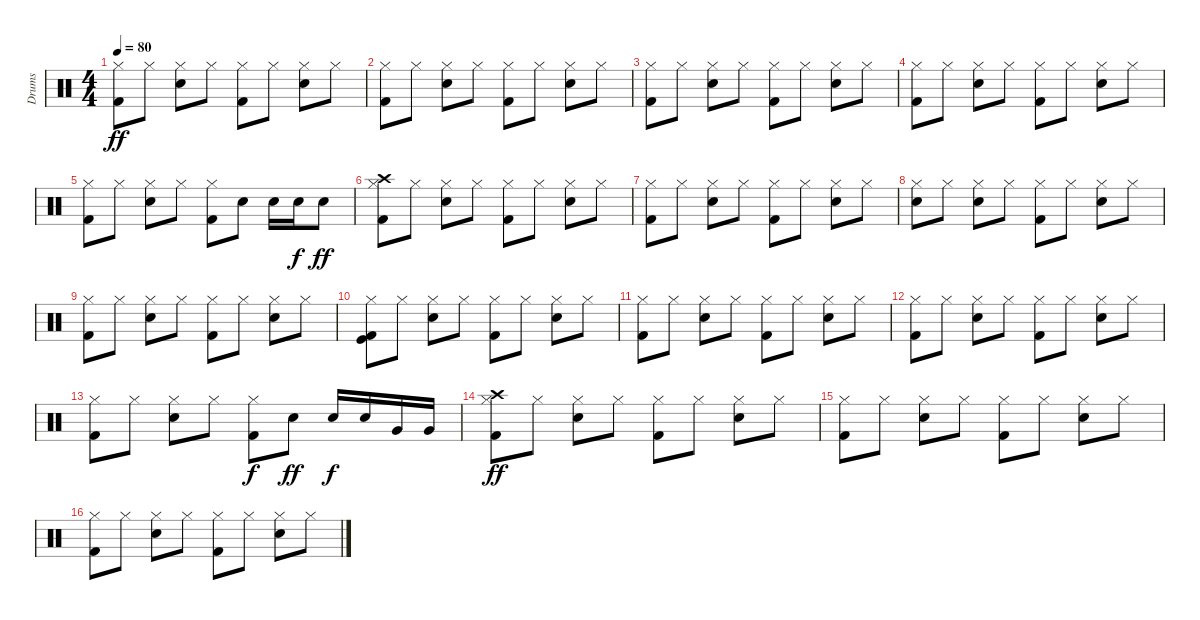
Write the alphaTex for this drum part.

\track ("Drums" "Drums") {instrument percussion}
\staff {score}
\articulation defaults
\ts (4 4)
\tempo 80
\clef neutral
\ks c
("Kick (hit) 2" "Hi-Hat (closed)").8{dy ff volume 12 balance 8} "Hi-Hat (closed)".8 ("Snare (hit) 2" "Hi-Hat (closed)").8 "Hi-Hat (closed)".8 ("Kick (hit) 2" "Hi-Hat (closed)").8 "Hi-Hat (closed)".8 ("Snare (hit) 2" "Hi-Hat (closed)").8 "Hi-Hat (closed)".8 |
("Kick (hit) 2" "Hi-Hat (closed)").8{volume 12 balance 8} "Hi-Hat (closed)".8 ("Snare (hit) 2" "Hi-Hat (closed)").8 "Hi-Hat (closed)".8 ("Kick (hit) 2" "Hi-Hat (closed)").8 "Hi-Hat (closed)".8 ("Snare (hit) 2" "Hi-Hat (closed)").8 "Hi-Hat (closed)".8 |
("Kick (hit) 2" "Hi-Hat (closed)").8{volume 12 balance 8} "Hi-Hat (closed)".8 ("Snare (hit) 2" "Hi-Hat (closed)").8 "Hi-Hat (closed)".8 ("Kick (hit) 2" "Hi-Hat (closed)").8 "Hi-Hat (closed)".8 ("Snare (hit) 2" "Hi-Hat (closed)").8 "Hi-Hat (closed)".8 |
("Kick (hit) 2" "Hi-Hat (closed)").8{volume 12 balance 8} "Hi-Hat (closed)".8 ("Snare (hit) 2" "Hi-Hat (closed)").8 "Hi-Hat (closed)".8 ("Kick (hit) 2" "Hi-Hat (closed)").8 "Hi-Hat (closed)".8 ("Snare (hit) 2" "Hi-Hat (closed)").8 "Hi-Hat (closed)".8 |
("Kick (hit) 2" "Hi-Hat (closed)").8{volume 12 balance 8} "Hi-Hat (closed)".8 ("Snare (hit) 2" "Hi-Hat (closed)").8 "Hi-Hat (closed)".8 ("Kick (hit) 2" "Hi-Hat (closed)").8 "Snare (hit) 2".8 "Snare (hit) 2".16 "Snare (hit) 2".16{dy f} "Snare (hit) 2".8{dy ff} |
("Kick (hit) 2" "Hi-Hat (closed)" "Crash high (hit)").8{volume 12 balance 8} "Hi-Hat (closed)".8 ("Snare (hit) 2" "Hi-Hat (closed)").8 "Hi-Hat (closed)".8 ("Kick (hit) 2" "Hi-Hat (closed)").8 "Hi-Hat (closed)".8 ("Snare (hit) 2" "Hi-Hat (closed)").8 "Hi-Hat (closed)".8 |
("Kick (hit) 2" "Hi-Hat (closed)").8{volume 12 balance 8} "Hi-Hat (closed)".8 ("Snare (hit) 2" "Hi-Hat (closed)").8 "Hi-Hat (closed)".8 ("Kick (hit) 2" "Hi-Hat (closed)").8 "Hi-Hat (closed)".8 ("Snare (hit) 2" "Hi-Hat (closed)").8 "Hi-Hat (closed)".8 |
("Snare (hit) 2" "Hi-Hat (closed)").8{volume 12 balance 8} "Hi-Hat (closed)".8 ("Snare (hit) 2" "Hi-Hat (closed)").8 "Hi-Hat (closed)".8 ("Kick (hit) 2" "Hi-Hat (closed)").8 "Hi-Hat (closed)".8 ("Snare (hit) 2" "Hi-Hat (closed)").8 "Hi-Hat (closed)".8 |
("Kick (hit) 2" "Hi-Hat (closed)").8{volume 12 balance 8} "Hi-Hat (closed)".8 ("Snare (hit) 2" "Hi-Hat (closed)").8 "Hi-Hat (closed)".8 ("Kick (hit) 2" "Hi-Hat (closed)").8 "Hi-Hat (closed)".8 ("Snare (hit) 2" "Hi-Hat (closed)").8 "Hi-Hat (closed)".8 |
("Kick (hit) 2" "Hi-Hat (closed)" "Kick (hit)").8{volume 12 balance 8} "Hi-Hat (closed)".8 ("Snare (hit) 2" "Hi-Hat (closed)").8 "Hi-Hat (closed)".8 ("Kick (hit) 2" "Hi-Hat (closed)").8 "Hi-Hat (closed)".8 ("Snare (hit) 2" "Hi-Hat (closed)").8 "Hi-Hat (closed)".8 |
("Kick (hit) 2" "Hi-Hat (closed)").8{volume 12 balance 8} "Hi-Hat (closed)".8 ("Snare (hit) 2" "Hi-Hat (closed)").8 "Hi-Hat (closed)".8 ("Kick (hit) 2" "Hi-Hat (closed)").8 "Hi-Hat (closed)".8 ("Snare (hit) 2" "Hi-Hat (closed)").8 "Hi-Hat (closed)".8 |
("Kick (hit) 2" "Hi-Hat (closed)").8{volume 12 balance 8} "Hi-Hat (closed)".8 ("Snare (hit) 2" "Hi-Hat (closed)").8 "Hi-Hat (closed)".8 ("Kick (hit) 2" "Hi-Hat (closed)").8 "Hi-Hat (closed)".8 ("Snare (hit) 2" "Hi-Hat (closed)").8 "Hi-Hat (closed)".8 |
("Kick (hit) 2" "Hi-Hat (closed)").8{volume 12 balance 8} "Hi-Hat (closed)".8 ("Snare (hit) 2" "Hi-Hat (closed)").8 "Hi-Hat (closed)".8 ("Kick (hit) 2" "Hi-Hat (closed)").8{dy f} "Snare (hit) 2".8{dy ff} "Snare (hit) 2".16{dy f} "Snare (hit) 2".16 "Very Low Tom (hit)".16 "Very Low Tom (hit)".16 |
("Kick (hit) 2" "Hi-Hat (closed)" "Crash high (hit)").8{dy ff volume 12 balance 8} "Hi-Hat (closed)".8 ("Snare (hit) 2" "Hi-Hat (closed)").8 "Hi-Hat (closed)".8 ("Kick (hit) 2" "Hi-Hat (closed)").8 "Hi-Hat (closed)".8 ("Snare (hit) 2" "Hi-Hat (closed)").8 "Hi-Hat (closed)".8 |
("Kick (hit) 2" "Hi-Hat (closed)").8{volume 12 balance 8} "Hi-Hat (closed)".8 ("Snare (hit) 2" "Hi-Hat (closed)").8 "Hi-Hat (closed)".8 ("Kick (hit) 2" "Hi-Hat (closed)").8 "Hi-Hat (closed)".8 ("Snare (hit) 2" "Hi-Hat (closed)").8 "Hi-Hat (closed)".8 |
("Kick (hit) 2" "Hi-Hat (closed)").8{volume 12 balance 8} "Hi-Hat (closed)".8 ("Snare (hit) 2" "Hi-Hat (closed)").8 "Hi-Hat (closed)".8 ("Kick (hit) 2" "Hi-Hat (closed)").8 "Hi-Hat (closed)".8 ("Snare (hit) 2" "Hi-Hat (closed)").8 "Hi-Hat (closed)".8
